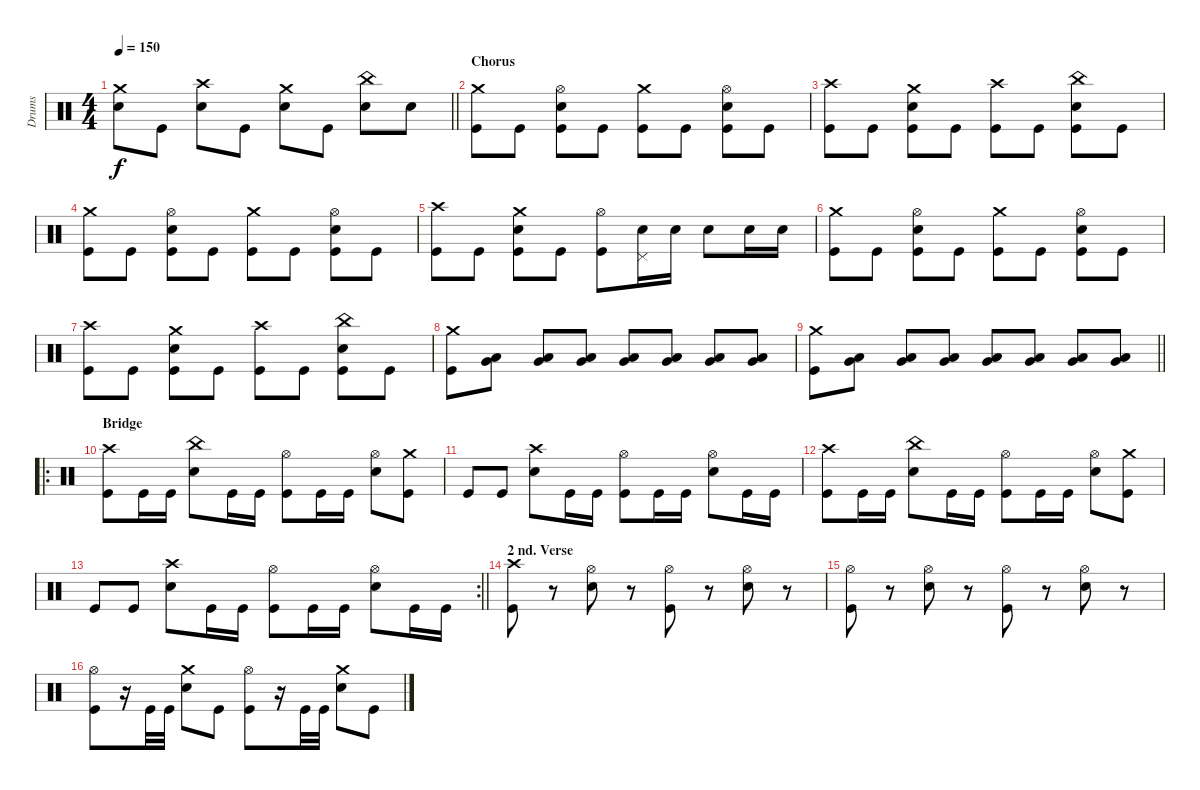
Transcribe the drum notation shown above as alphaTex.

\track ("Drums" "Drums") {instrument percussion}
\staff {score}
\articulation defaults
\ts (4 4)
\tempo 150
\clef neutral
\barLineRight lightlight
\ks c
("Crash medium (hit)" "Electric Snare (hit)").8{dy f} "Kick (hit)".8 ("Crash high (hit)" "Electric Snare (hit)").8 "Kick (hit)".8 ("Crash medium (hit)" "Electric Snare (hit)").8 "Kick (hit)".8 ("China (hit)" "Electric Snare (hit)").8 "Electric Snare (hit)".8 |
\section ("" "Chorus")
("Crash medium (hit)" "Kick (hit)").8 "Kick (hit)".8 ("Hi-Hat (open)" "Electric Snare (hit)" "Kick (hit)").8 "Kick (hit)".8 ("Crash medium (hit)" "Kick (hit)").8 "Kick (hit)".8 ("Hi-Hat (open)" "Electric Snare (hit)" "Kick (hit)").8 "Kick (hit)".8 |
("Crash high (hit)" "Kick (hit)").8 "Kick (hit)".8 ("Crash medium (hit)" "Electric Snare (hit)" "Kick (hit)").8 "Kick (hit)".8 ("Crash high (hit)" "Kick (hit)").8 "Kick (hit)".8 ("China (hit)" "Electric Snare (hit)" "Kick (hit)").8 "Kick (hit)".8 |
("Crash medium (hit)" "Kick (hit)").8 "Kick (hit)".8 ("Hi-Hat (open)" "Electric Snare (hit)" "Kick (hit)").8 "Kick (hit)".8 ("Crash medium (hit)" "Kick (hit)").8 "Kick (hit)".8 ("Hi-Hat (open)" "Electric Snare (hit)" "Kick (hit)").8 "Kick (hit)".8 |
("Crash high (hit)" "Kick (hit)").8 "Kick (hit)".8 ("Crash medium (hit)" "Electric Snare (hit)" "Kick (hit)").8 "Kick (hit)".8 ("Hi-Hat (open)" "Kick (hit)").8 ("Pedal Hi-Hat (hit)" "Electric Snare (hit)").16 "Electric Snare (hit)".16 "Electric Snare (hit)".8 "Electric Snare (hit)".16 "Electric Snare (hit)".16 |
("Crash medium (hit)" "Kick (hit)").8 "Kick (hit)".8 ("Hi-Hat (open)" "Electric Snare (hit)" "Kick (hit)").8 "Kick (hit)".8 ("Crash medium (hit)" "Kick (hit)").8 "Kick (hit)".8 ("Hi-Hat (open)" "Electric Snare (hit)" "Kick (hit)").8 "Kick (hit)".8 |
("Crash high (hit)" "Kick (hit)").8 "Kick (hit)".8 ("Crash medium (hit)" "Electric Snare (hit)" "Kick (hit)").8 "Kick (hit)".8 ("Crash high (hit)" "Kick (hit)").8 "Kick (hit)".8 ("China (hit)" "Electric Snare (hit)" "Kick (hit)").8 "Kick (hit)".8 |
("Crash medium (hit)" "Kick (hit)").8 ("Low Tom (hit)" "Very Low Tom (hit)").8 ("Low Tom (hit)" "Very Low Tom (hit)").8 ("Low Tom (hit)" "Very Low Tom (hit)").8 ("Low Tom (hit)" "Very Low Tom (hit)").8 ("Low Tom (hit)" "Very Low Tom (hit)").8 ("Low Tom (hit)" "Very Low Tom (hit)").8 ("Low Tom (hit)" "Very Low Tom (hit)").8 |
\barLineRight lightlight
("Crash medium (hit)" "Kick (hit)").8 ("Low Tom (hit)" "Very Low Tom (hit)").8 ("Low Tom (hit)" "Very Low Tom (hit)").8 ("Low Tom (hit)" "Very Low Tom (hit)").8 ("Low Tom (hit)" "Very Low Tom (hit)").8 ("Low Tom (hit)" "Very Low Tom (hit)").8 ("Low Tom (hit)" "Very Low Tom (hit)").8 ("Low Tom (hit)" "Very Low Tom (hit)").8 |
\ro
\section ("" "Bridge")
("Crash high (hit)" "Kick (hit)").8 "Kick (hit)".16 "Kick (hit)".16 ("China (hit)" "Electric Snare (hit)").8 "Kick (hit)".16 "Kick (hit)".16 ("Hi-Hat (open)" "Kick (hit)").8 "Kick (hit)".16 "Kick (hit)".16 ("Hi-Hat (open)" "Electric Snare (hit)").8 ("Crash medium (hit)" "Kick (hit)").8 |
"Kick (hit)".8 "Kick (hit)".8 ("Crash high (hit)" "Electric Snare (hit)").8 "Kick (hit)".16 "Kick (hit)".16 ("Hi-Hat (open)" "Kick (hit)").8 "Kick (hit)".16 "Kick (hit)".16 ("Hi-Hat (open)" "Electric Snare (hit)").8 "Kick (hit)".16 "Kick (hit)".16 |
("Crash high (hit)" "Kick (hit)").8 "Kick (hit)".16 "Kick (hit)".16 ("China (hit)" "Electric Snare (hit)").8 "Kick (hit)".16 "Kick (hit)".16 ("Hi-Hat (open)" "Kick (hit)").8 "Kick (hit)".16 "Kick (hit)".16 ("Hi-Hat (open)" "Electric Snare (hit)").8 ("Crash medium (hit)" "Kick (hit)").8 |
\rc 2
\barLineRight lightlight "Kick (hit)".8 "Kick (hit)".8
("Crash high (hit)" "Electric Snare (hit)").8 "Kick (hit)".16 "Kick (hit)".16 ("Hi-Hat (open)" "Kick (hit)").8 "Kick (hit)".16 "Kick (hit)".16 ("Hi-Hat (open)" "Electric Snare (hit)").8 "Kick (hit)".16 "Kick (hit)".16 |
\section ("" "2 nd. Verse")
("Crash high (hit)" "Kick (hit)").8 r.8 ("Hi-Hat (open)" "Electric Snare (hit)").8 r.8 ("Hi-Hat (open)" "Kick (hit)").8 r.8 ("Hi-Hat (open)" "Electric Snare (hit)").8 r.8 |
("Hi-Hat (open)" "Kick (hit)").8 r.8 ("Hi-Hat (open)" "Electric Snare (hit)").8 r.8 ("Hi-Hat (open)" "Kick (hit)").8 r.8 ("Hi-Hat (open)" "Electric Snare (hit)").8 r.8 |
("Hi-Hat (open)" "Kick (hit)").8 r.16 "Kick (hit)".32 "Kick (hit)".32 ("Crash medium (hit)" "Electric Snare (hit)").8 "Kick (hit)".8 ("Hi-Hat (open)" "Kick (hit)").8 r.16 "Kick (hit)".32 "Kick (hit)".32 ("Crash medium (hit)" "Electric Snare (hit)").8 "Kick (hit)".8
